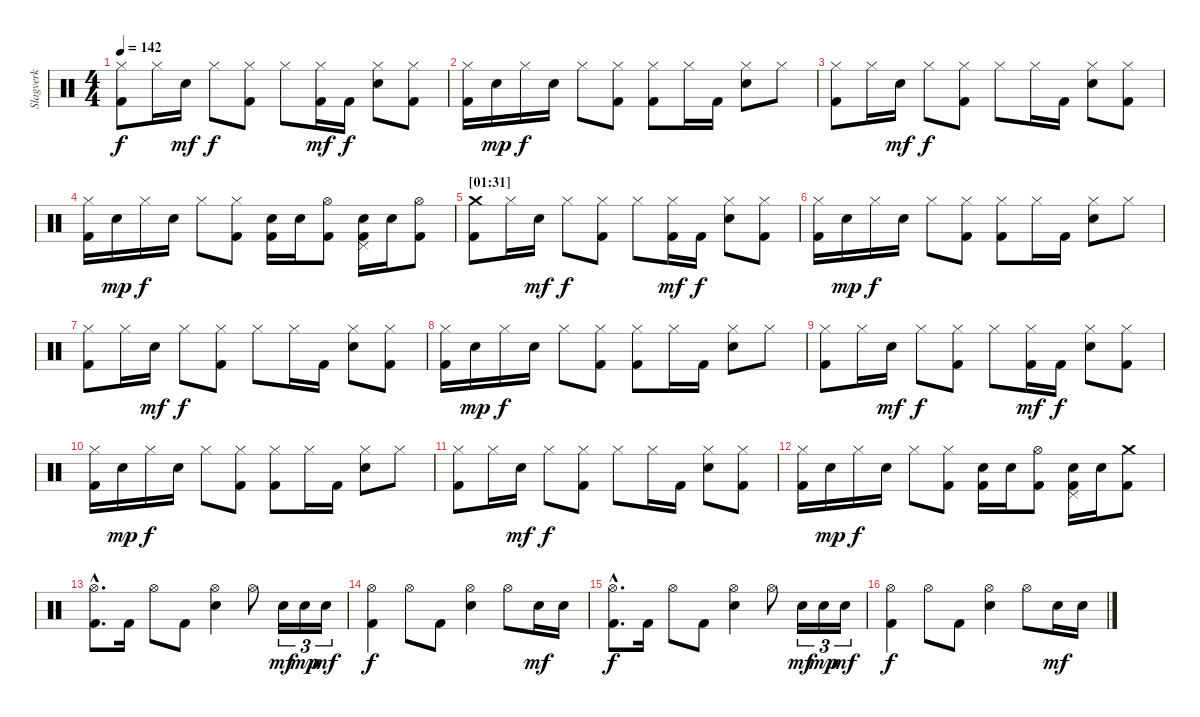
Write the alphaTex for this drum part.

\track ("Slagverk" "Slagverk") {instrument percussion}
\staff {score}
\articulation defaults
\ts (4 4)
\tempo 142
\clef neutral
\ks c
("Hi-Hat (closed)" "Kick (hit) 2").8{dy f} "Hi-Hat (closed)".16 "Electric Snare (hit)".16{dy mf} "Hi-Hat (closed)".8{dy f} ("Hi-Hat (closed)" "Kick (hit) 2").8 "Hi-Hat (closed)".8 ("Hi-Hat (closed)" "Kick (hit) 2").16{dy mf} "Kick (hit) 2".16{dy f} ("Hi-Hat (closed)" "Electric Snare (hit)").8 ("Hi-Hat (closed)" "Kick (hit) 2").8 |
("Hi-Hat (closed)" "Kick (hit) 2").16 "Electric Snare (hit)".16{dy mp} "Hi-Hat (closed)".16{dy f} "Electric Snare (hit)".16 "Hi-Hat (closed)".8 ("Hi-Hat (closed)" "Kick (hit) 2").8 ("Hi-Hat (closed)" "Kick (hit) 2").8 "Hi-Hat (closed)".16 "Kick (hit) 2".16 ("Hi-Hat (closed)" "Electric Snare (hit)").8 "Hi-Hat (closed)".8 |
("Hi-Hat (closed)" "Kick (hit) 2").8 "Hi-Hat (closed)".16 "Electric Snare (hit)".16{dy mf} "Hi-Hat (closed)".8{dy f} ("Hi-Hat (closed)" "Kick (hit) 2").8 "Hi-Hat (closed)".8 "Hi-Hat (closed)".16 "Kick (hit) 2".16 ("Hi-Hat (closed)" "Electric Snare (hit)").8 ("Hi-Hat (closed)" "Kick (hit) 2").8 |
("Hi-Hat (closed)" "Kick (hit) 2").16 "Electric Snare (hit)".16{dy mp} "Hi-Hat (closed)".16{dy f} "Electric Snare (hit)".16 "Hi-Hat (closed)".8 ("Hi-Hat (closed)" "Kick (hit) 2").8 ("Electric Snare (hit)" "Kick (hit) 2").16 "Electric Snare (hit)".16 ("Hi-Hat (open)" "Kick (hit) 2").8 ("Pedal Hi-Hat (hit)" "Electric Snare (hit)" "Kick (hit) 2").16 "Electric Snare (hit)".16 ("Hi-Hat (open)" "Kick (hit) 2").8 |
\section ("" "[01:31]")
("Crash medium (hit)" "Kick (hit) 2").8 "Hi-Hat (closed)".16 "Electric Snare (hit)".16{dy mf} "Hi-Hat (closed)".8{dy f} ("Hi-Hat (closed)" "Kick (hit) 2").8 "Hi-Hat (closed)".8 ("Hi-Hat (closed)" "Kick (hit) 2").16{dy mf} "Kick (hit) 2".16{dy f} ("Hi-Hat (closed)" "Electric Snare (hit)").8 ("Hi-Hat (closed)" "Kick (hit) 2").8 |
("Hi-Hat (closed)" "Kick (hit) 2").16 "Electric Snare (hit)".16{dy mp} "Hi-Hat (closed)".16{dy f} "Electric Snare (hit)".16 "Hi-Hat (closed)".8 ("Hi-Hat (closed)" "Kick (hit) 2").8 ("Hi-Hat (closed)" "Kick (hit) 2").8 "Hi-Hat (closed)".16 "Kick (hit) 2".16 ("Hi-Hat (closed)" "Electric Snare (hit)").8 "Hi-Hat (closed)".8 |
("Hi-Hat (closed)" "Kick (hit) 2").8 "Hi-Hat (closed)".16 "Electric Snare (hit)".16{dy mf} "Hi-Hat (closed)".8{dy f} ("Hi-Hat (closed)" "Kick (hit) 2").8 "Hi-Hat (closed)".8 "Hi-Hat (closed)".16 "Kick (hit) 2".16 ("Hi-Hat (closed)" "Electric Snare (hit)").8 ("Hi-Hat (closed)" "Kick (hit) 2").8 |
("Hi-Hat (closed)" "Kick (hit) 2").16 "Electric Snare (hit)".16{dy mp} "Hi-Hat (closed)".16{dy f} "Electric Snare (hit)".16 "Hi-Hat (closed)".8 ("Hi-Hat (closed)" "Kick (hit) 2").8 ("Hi-Hat (closed)" "Kick (hit) 2").8 "Hi-Hat (closed)".16 "Kick (hit) 2".16 ("Hi-Hat (closed)" "Electric Snare (hit)").8 "Hi-Hat (closed)".8 |
("Hi-Hat (closed)" "Kick (hit) 2").8 "Hi-Hat (closed)".16 "Electric Snare (hit)".16{dy mf} "Hi-Hat (closed)".8{dy f} ("Hi-Hat (closed)" "Kick (hit) 2").8 "Hi-Hat (closed)".8 ("Hi-Hat (closed)" "Kick (hit) 2").16{dy mf} "Kick (hit) 2".16{dy f} ("Hi-Hat (closed)" "Electric Snare (hit)").8 ("Hi-Hat (closed)" "Kick (hit) 2").8 |
("Hi-Hat (closed)" "Kick (hit) 2").16 "Electric Snare (hit)".16{dy mp} "Hi-Hat (closed)".16{dy f} "Electric Snare (hit)".16 "Hi-Hat (closed)".8 ("Hi-Hat (closed)" "Kick (hit) 2").8 ("Hi-Hat (closed)" "Kick (hit) 2").8 "Hi-Hat (closed)".16 "Kick (hit) 2".16 ("Hi-Hat (closed)" "Electric Snare (hit)").8 "Hi-Hat (closed)".8 |
("Hi-Hat (closed)" "Kick (hit) 2").8 "Hi-Hat (closed)".16 "Electric Snare (hit)".16{dy mf} "Hi-Hat (closed)".8{dy f} ("Hi-Hat (closed)" "Kick (hit) 2").8 "Hi-Hat (closed)".8 "Hi-Hat (closed)".16 "Kick (hit) 2".16 ("Hi-Hat (closed)" "Electric Snare (hit)").8 ("Hi-Hat (closed)" "Kick (hit) 2").8 |
("Hi-Hat (closed)" "Kick (hit) 2").16 "Electric Snare (hit)".16{dy mp} "Hi-Hat (closed)".16{dy f} "Electric Snare (hit)".16 "Hi-Hat (closed)".8 ("Hi-Hat (closed)" "Kick (hit) 2").8 ("Electric Snare (hit)" "Kick (hit) 2").16 "Electric Snare (hit)".16 ("Hi-Hat (open)" "Kick (hit) 2").8 ("Pedal Hi-Hat (hit)" "Electric Snare (hit)" "Kick (hit) 2").16 "Electric Snare (hit)".16 ("Crash medium (hit)" "Kick (hit) 2").8 |
\section ("" "")
("Hi-Hat (open)"{hac} "Kick (hit) 2"{hac}).8{d} "Kick (hit) 2".16 "Hi-Hat (open)".8 "Kick (hit) 2".8 ("Hi-Hat (open)" "Electric Snare (hit)").4 "Hi-Hat (open)".8 "Electric Snare (hit)".16{tu (3 2) dy mf} "Electric Snare (hit)".16{tu (3 2) dy mp} "Electric Snare (hit)".16{tu (3 2) dy mf} |
("Hi-Hat (open)" "Kick (hit) 2").4{dy f} "Hi-Hat (open)".8 "Kick (hit) 2".8 ("Hi-Hat (open)" "Electric Snare (hit)").4 "Hi-Hat (open)".8 "Electric Snare (hit)".16{dy mf} "Electric Snare (hit)".16 |
("Hi-Hat (open)"{hac} "Kick (hit) 2"{hac}).8{d dy f} "Kick (hit) 2".16 "Hi-Hat (open)".8 "Kick (hit) 2".8 ("Hi-Hat (open)" "Electric Snare (hit)").4 "Hi-Hat (open)".8 "Electric Snare (hit)".16{tu (3 2) dy mf} "Electric Snare (hit)".16{tu (3 2) dy mp} "Electric Snare (hit)".16{tu (3 2) dy mf} |
("Hi-Hat (open)" "Kick (hit) 2").4{dy f} "Hi-Hat (open)".8 "Kick (hit) 2".8 ("Hi-Hat (open)" "Electric Snare (hit)").4 "Hi-Hat (open)".8 "Electric Snare (hit)".16{dy mf} "Electric Snare (hit)".16
